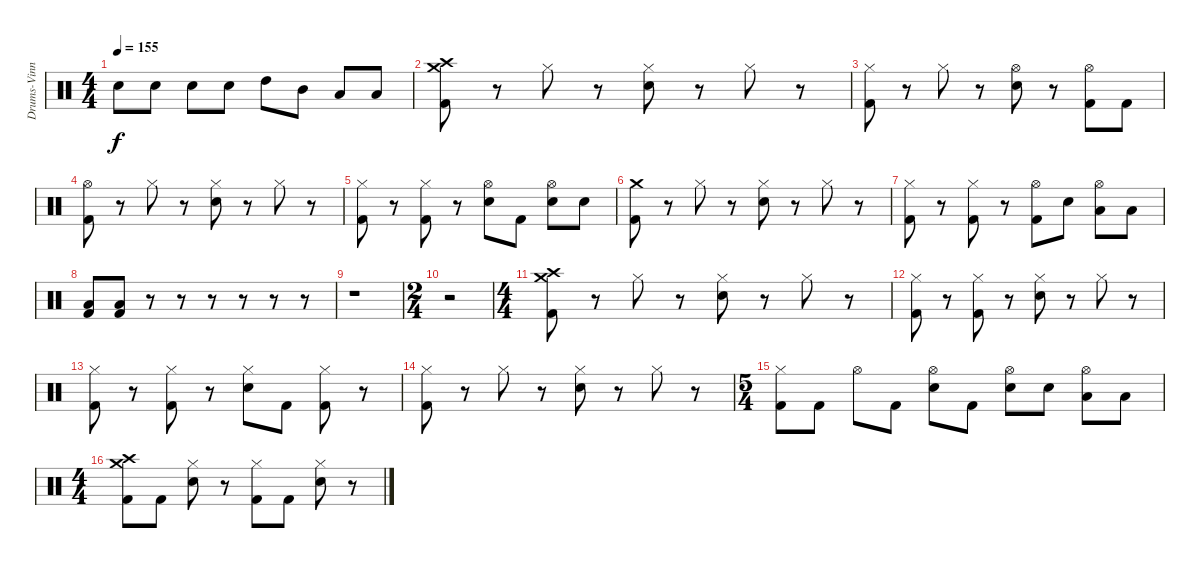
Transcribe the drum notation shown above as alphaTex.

\track ("Drums-Vinny Appice" "Drums-Vinn") {instrument percussion}
\staff {score}
\articulation defaults
\ts (4 4)
\tempo 155
\clef neutral
\ks c "Electric Snare (hit)".8{dy f} "Electric Snare (hit)".8 "Electric Snare (hit)".8 "Electric Snare (hit)".8 "High Tom (hit)".8 "Mid Tom (hit)".8 "Low Floor Tom (hit)".8 "Low Floor Tom (hit)".8
|
("Crash medium (hit)" "Crash high (hit)" "Kick (hit) 2").8 r.8 "Hi-Hat (closed)".8 r.8 ("Hi-Hat (closed)" "Electric Snare (hit)").8 r.8 "Hi-Hat (closed)".8 r.8 |
("Hi-Hat (closed)" "Kick (hit) 2").8 r.8 "Hi-Hat (closed)".8 r.8 ("Hi-Hat (open)" "Electric Snare (hit)").8 r.8 ("Hi-Hat (open)" "Kick (hit) 2").8 "Kick (hit) 2".8 |
("Hi-Hat (open)" "Kick (hit) 2").8 r.8 "Hi-Hat (closed)".8 r.8 ("Hi-Hat (closed)" "Electric Snare (hit)").8 r.8 "Hi-Hat (closed)".8 r.8 |
("Hi-Hat (closed)" "Kick (hit) 2").8 r.8 ("Hi-Hat (closed)" "Kick (hit) 2").8 r.8 ("Hi-Hat (open)" "Electric Snare (hit)").8 "Kick (hit) 2".8 ("Hi-Hat (open)" "Electric Snare (hit)").8 "Electric Snare (hit)".8 |
("Crash medium (hit)" "Kick (hit) 2").8 r.8 "Hi-Hat (closed)".8 r.8 ("Hi-Hat (closed)" "Electric Snare (hit)").8 r.8 "Hi-Hat (closed)".8 r.8 |
("Hi-Hat (closed)" "Kick (hit) 2").8 r.8 ("Hi-Hat (closed)" "Kick (hit) 2").8 r.8 ("Hi-Hat (open)" "Kick (hit) 2").8 "Electric Snare (hit)".8 ("Hi-Hat (open)" "Low Floor Tom (hit)").8 "Low Floor Tom (hit)".8 |
("Low Floor Tom (hit)" "Kick (hit) 2").8 ("Low Floor Tom (hit)" "Kick (hit) 2").8 r.8 r.8 r.8 r.8 r.8 r.8 |
r.1 |
\ts (2 4)
r.2 |
\ts (4 4)
("Crash medium (hit)" "Crash high (hit)" "Kick (hit) 2").8 r.8 "Hi-Hat (closed)".8 r.8 ("Hi-Hat (closed)" "Electric Snare (hit)").8 r.8 "Hi-Hat (closed)".8 r.8 |
("Hi-Hat (closed)" "Kick (hit) 2").8 r.8 ("Hi-Hat (closed)" "Kick (hit) 2").8 r.8 ("Hi-Hat (closed)" "Electric Snare (hit)").8 r.8 "Hi-Hat (closed)".8 r.8 |
("Hi-Hat (closed)" "Kick (hit) 2").8 r.8 ("Hi-Hat (closed)" "Kick (hit) 2").8 r.8 ("Hi-Hat (closed)" "Electric Snare (hit)").8 "Kick (hit) 2".8 ("Hi-Hat (closed)" "Kick (hit) 2").8 r.8 |
("Hi-Hat (closed)" "Kick (hit) 2").8 r.8 "Hi-Hat (closed)".8 r.8 ("Hi-Hat (closed)" "Electric Snare (hit)").8 r.8 "Hi-Hat (closed)".8 r.8 |
\ts (5 4)
("Hi-Hat (closed)" "Kick (hit) 2").8 "Kick (hit) 2".8 "Hi-Hat (open)".8 "Kick (hit) 2".8 ("Hi-Hat (open)" "Electric Snare (hit)").8 "Kick (hit) 2".8 ("Hi-Hat (open)" "Electric Snare (hit)").8 "Electric Snare (hit)".8 ("Hi-Hat (open)" "Low Floor Tom (hit)").8 "Low Floor Tom (hit)".8 |
\ts (4 4)
("Crash medium (hit)" "Crash high (hit)" "Kick (hit) 2").8 "Kick (hit) 2".8 ("Hi-Hat (closed)" "Electric Snare (hit)").8 r.8 ("Hi-Hat (closed)" "Kick (hit) 2").8 "Kick (hit) 2".8 ("Hi-Hat (closed)" "Electric Snare (hit)").8 r.8
